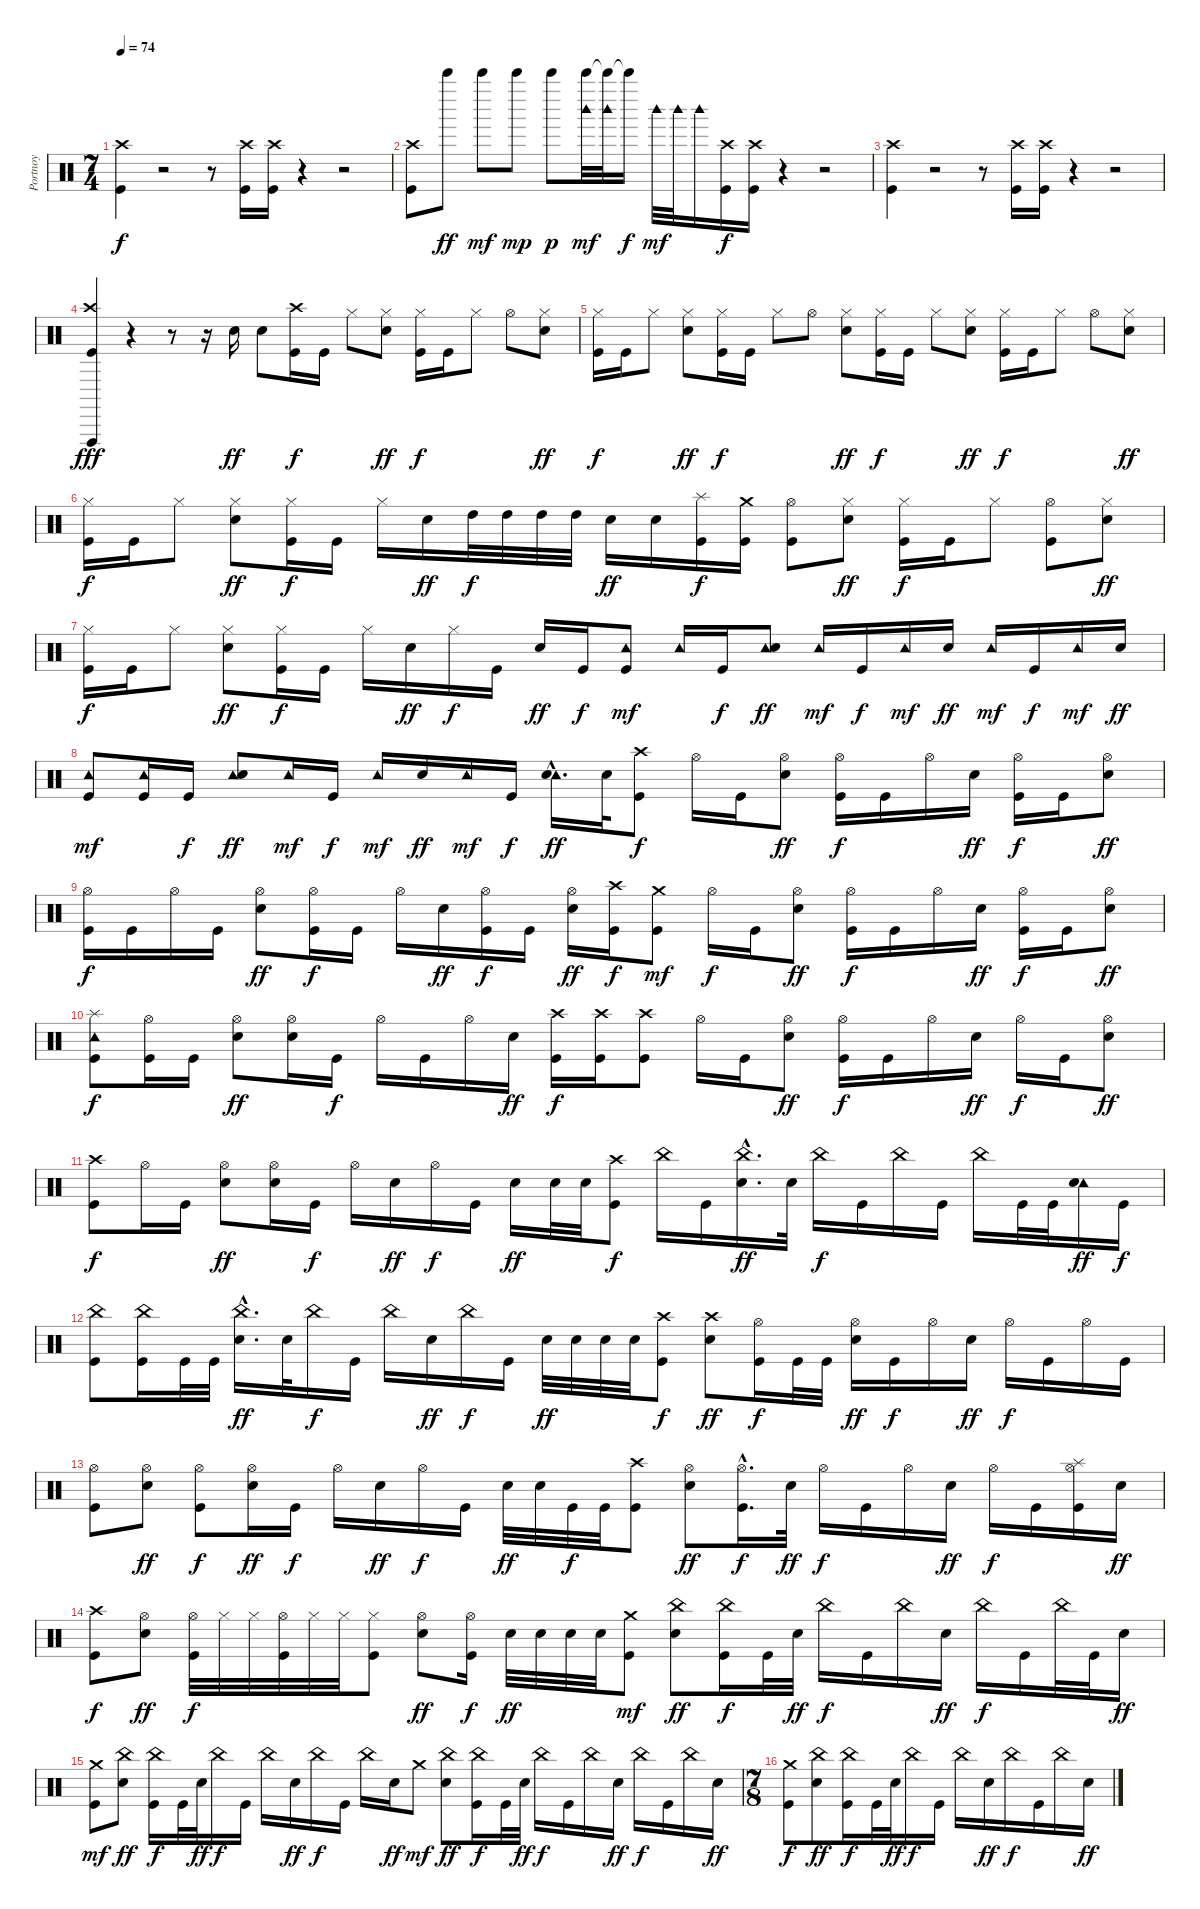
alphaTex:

\track ("Portnoy" "Portnoy") {instrument percussion}
\staff {score}
\articulation defaults
\ts (7 4)
\tempo 74
\clef neutral
\ks c
("Crash high (hit)" "Kick (hit)").4{dy f} r.2 r.8 ("Crash high (hit)" "Kick (hit)").16 ("Crash high (hit)" "Kick (hit)").16 r.4 r.2 |
("Crash high (hit)" "Kick (hit)").8 "Bell Tree (hit)".8{dy ff} "Bell Tree (hit)".8{dy mf} "Bell Tree (hit)".8{dy mp} "Bell Tree (hit)".8{dy p} ("Bell Tree (hit)" "Woodblock high (hit)").32{dy mf} ("Bell Tree (hit)"{t} "Woodblock high (hit)").32 "Bell Tree (hit)"{t}.16{dy f} "Woodblock high (hit)".32{dy mf} "Woodblock high (hit)".32 "Woodblock high (hit)".16 ("Crash high (hit)" "Kick (hit)").16{dy f} ("Crash high (hit)" "Kick (hit)").16 r.4 r.2 |
("Crash high (hit)" "Kick (hit)").4 r.2 r.8 ("Crash high (hit)" "Kick (hit)").16 ("Crash high (hit)" "Kick (hit)").16 r.4 r.2 |
("Crash high (hit)" "Vibraslap (hit)" "Kick (hit)").4{dy fff} r.4 r.8 r.16 "Electric Snare (hit)".16{dy ff} "Electric Snare (hit)".8 ("Crash high (hit)" "Kick (hit)").16{dy f} "Kick (hit)".16 "Hi-Hat (closed)".8 ("Hi-Hat (closed)" "Electric Snare (hit)").8{dy ff} ("Hi-Hat (closed)" "Kick (hit)").16{dy f} "Kick (hit)".16 "Hi-Hat (closed)".8 "Hi-Hat (open)".8 ("Hi-Hat (closed)" "Electric Snare (hit)").8{dy ff} |
("Hi-Hat (closed)" "Kick (hit)").16{dy f} "Kick (hit)".16 "Hi-Hat (closed)".8 ("Hi-Hat (closed)" "Electric Snare (hit)").8{dy ff} ("Hi-Hat (closed)" "Kick (hit)").16{dy f} "Kick (hit)".16 "Hi-Hat (closed)".8 "Hi-Hat (open)".8 ("Hi-Hat (closed)" "Electric Snare (hit)").8{dy ff} ("Hi-Hat (closed)" "Kick (hit)").16{dy f} "Kick (hit)".16 "Hi-Hat (closed)".8 ("Hi-Hat (closed)" "Electric Snare (hit)").8{dy ff} ("Hi-Hat (closed)" "Kick (hit)").16{dy f} "Kick (hit)".16 "Hi-Hat (closed)".8 "Hi-Hat (open)".8 ("Hi-Hat (closed)" "Electric Snare (hit)").8{dy ff} |
("Hi-Hat (closed)" "Kick (hit)").16{dy f} "Kick (hit)".16 "Hi-Hat (closed)".8 ("Hi-Hat (closed)" "Electric Snare (hit)").8{dy ff} ("Hi-Hat (closed)" "Kick (hit)").16{dy f} "Kick (hit)".16 "Hi-Hat (closed)".16 "Electric Snare (hit)".16{dy ff} "High Tom (hit)".32{dy f} "High Tom (hit)".32 "High Tom (hit)".32 "High Tom (hit)".32 "Electric Snare (hit)".16{dy ff} "Electric Snare (hit)".16 ("Splash (hit)" "Kick (hit)").16{dy f} ("Crash medium (hit)" "Kick (hit)").16 ("Hi-Hat (open)" "Kick (hit)").8 ("Hi-Hat (closed)" "Electric Snare (hit)").8{dy ff} ("Hi-Hat (closed)" "Kick (hit)").16{dy f} "Kick (hit)".16 "Hi-Hat (closed)".8 ("Hi-Hat (open)" "Kick (hit)").8 ("Hi-Hat (closed)" "Electric Snare (hit)").8{dy ff} |
("Hi-Hat (closed)" "Kick (hit)").16{dy f} "Kick (hit)".16 "Hi-Hat (closed)".8 ("Hi-Hat (closed)" "Electric Snare (hit)").8{dy ff} ("Hi-Hat (closed)" "Kick (hit)").16{dy f} "Kick (hit)".16 "Hi-Hat (closed)".16 "Electric Snare (hit)".16{dy ff} "Hi-Hat (closed)".16{dy f} "Kick (hit)".16 "Electric Snare (hit)".16{dy ff} "Kick (hit)".16{dy f} ("Tambourine (hit)" "Kick (hit)").8{dy mf} "Tambourine (hit)".16 "Kick (hit)".16{dy f} ("Tambourine (hit)" "Electric Snare (hit)").8{dy ff} "Tambourine (hit)".16{dy mf} "Kick (hit)".16{dy f} "Tambourine (hit)".16{dy mf} "Electric Snare (hit)".16{dy ff} "Tambourine (hit)".16{dy mf} "Kick (hit)".16{dy f} "Tambourine (hit)".16{dy mf} "Electric Snare (hit)".16{dy ff} |
("Tambourine (hit)" "Kick (hit)").8{dy mf} ("Tambourine (hit)" "Kick (hit)").16 "Kick (hit)".16{dy f} ("Tambourine (hit)" "Electric Snare (hit)").8{dy ff} "Tambourine (hit)".16{dy mf} "Kick (hit)".16{dy f} "Tambourine (hit)".16{dy mf} "Electric Snare (hit)".16{dy ff} "Tambourine (hit)".16{dy mf} "Kick (hit)".16{dy f} ("Tambourine (hit)"{hac} "Electric Snare (hit)"{hac}).16{d dy ff} "Electric Snare (hit)".32 ("Crash high (hit)" "Kick (hit)").8{dy f} "Hi-Hat (open)".16 "Kick (hit)".16 ("Hi-Hat (open)" "Electric Snare (hit)").8{dy ff} ("Hi-Hat (open)" "Kick (hit)").16{dy f} "Kick (hit)".16 "Hi-Hat (open)".16 "Electric Snare (hit)".16{dy ff} ("Hi-Hat (open)" "Kick (hit)").16{dy f} "Kick (hit)".16 ("Hi-Hat (open)" "Electric Snare (hit)").8{dy ff} |
("Hi-Hat (open)" "Kick (hit)").16{dy f} "Kick (hit)".16 "Hi-Hat (open)".16 "Kick (hit)".16 ("Hi-Hat (open)" "Electric Snare (hit)").8{dy ff} ("Hi-Hat (open)" "Kick (hit)").16{dy f} "Kick (hit)".16 "Hi-Hat (open)".16 "Electric Snare (hit)".16{dy ff} ("Hi-Hat (open)" "Kick (hit)").16{dy f} "Kick (hit)".16 ("Hi-Hat (open)" "Electric Snare (hit)").16{dy ff} ("Crash high (hit)" "Kick (hit)").16{dy f} ("Crash medium (hit)" "Kick (hit)").8{dy mf} "Hi-Hat (open)".16{dy f} "Kick (hit)".16 ("Hi-Hat (open)" "Electric Snare (hit)").8{dy ff} ("Hi-Hat (open)" "Kick (hit)").16{dy f} "Kick (hit)".16 "Hi-Hat (open)".16 "Electric Snare (hit)".16{dy ff} ("Hi-Hat (open)" "Kick (hit)").16{dy f} "Kick (hit)".16 ("Hi-Hat (open)" "Electric Snare (hit)").8{dy ff} |
("Splash (hit)" "Tambourine (hit)" "Kick (hit)").8{dy f} ("Hi-Hat (open)" "Kick (hit)").16 "Kick (hit)".16 ("Hi-Hat (open)" "Electric Snare (hit)").8{dy ff} ("Hi-Hat (open)" "Electric Snare (hit)").16 "Kick (hit)".16{dy f} "Hi-Hat (open)".16 "Kick (hit)".16 "Hi-Hat (open)".16 "Electric Snare (hit)".16{dy ff} ("Crash high (hit)" "Kick (hit)").16{dy f} ("Crash high (hit)" "Kick (hit)").16 ("Crash high (hit)" "Kick (hit)").8 "Hi-Hat (open)".16 "Kick (hit)".16 ("Hi-Hat (open)" "Electric Snare (hit)").8{dy ff} ("Hi-Hat (open)" "Kick (hit)").16{dy f} "Kick (hit)".16 "Hi-Hat (open)".16 "Electric Snare (hit)".16{dy ff} "Hi-Hat (open)".16{dy f} "Kick (hit)".16 ("Hi-Hat (open)" "Electric Snare (hit)").8{dy ff} |
("Crash high (hit)" "Kick (hit)").8{dy f} "Hi-Hat (open)".16 "Kick (hit)".16 ("Hi-Hat (open)" "Electric Snare (hit)").8{dy ff} ("Hi-Hat (open)" "Electric Snare (hit)").16 "Kick (hit)".16{dy f} "Hi-Hat (open)".16 "Electric Snare (hit)".16{dy ff} "Hi-Hat (open)".16{dy f} "Kick (hit)".16 "Electric Snare (hit)".16{dy ff} "Electric Snare (hit)".32 "Electric Snare (hit)".32 ("Crash high (hit)" "Kick (hit)").8{dy f} "China (hit)".16 "Kick (hit)".16 ("China (hit)"{hac} "Electric Snare (hit)"{hac}).16{d dy ff} "Electric Snare (hit)".32 "China (hit)".16{dy f} "Kick (hit)".16 "China (hit)".16 "Kick (hit)".16 "China (hit)".16 "Kick (hit)".32 "Kick (hit)".32 ("Tambourine (hit)" "Electric Snare (hit)").16{dy ff} "Kick (hit)".16{dy f} |
("China (hit)" "Kick (hit)").8 ("China (hit)" "Kick (hit)").16 "Kick (hit)".32 "Kick (hit)".32 ("China (hit)"{hac} "Electric Snare (hit)"{hac}).16{d dy ff} "Electric Snare (hit)".32 "China (hit)".16{dy f} "Kick (hit)".16 "China (hit)".16 "Electric Snare (hit)".16{dy ff} "China (hit)".16{dy f} "Kick (hit)".16 "Electric Snare (hit)".32{dy ff} "Electric Snare (hit)".32 "Electric Snare (hit)".32 "Electric Snare (hit)".32 ("Crash high (hit)" "Kick (hit)").8{dy f} ("Crash high (hit)" "Electric Snare (hit)").8{dy ff} ("Hi-Hat (open)" "Kick (hit)").16{dy f} "Kick (hit)".32 "Kick (hit)".32 ("Hi-Hat (open)" "Electric Snare (hit)").16{dy ff} "Kick (hit)".16{dy f} "Hi-Hat (open)".16 "Electric Snare (hit)".16{dy ff} "Hi-Hat (open)".16{dy f} "Kick (hit)".16 "Hi-Hat (open)".16 "Kick (hit)".16 |
("Hi-Hat (open)" "Kick (hit)").8 ("Hi-Hat (open)" "Electric Snare (hit)").8{dy ff} ("Hi-Hat (open)" "Kick (hit)").8{dy f} ("Hi-Hat (open)" "Electric Snare (hit)").16{dy ff} "Kick (hit)".16{dy f} "Hi-Hat (open)".16 "Electric Snare (hit)".16{dy ff} "Hi-Hat (open)".16{dy f} "Kick (hit)".16 "Electric Snare (hit)".32{dy ff} "Electric Snare (hit)".32 "Kick (hit)".32{dy f} "Kick (hit)".32 ("Crash high (hit)" "Kick (hit)").8 ("Hi-Hat (open)" "Electric Snare (hit)").8{dy ff} ("Hi-Hat (open)"{hac} "Kick (hit)"{hac}).16{d dy f} "Electric Snare (hit)".32{dy ff} "Hi-Hat (open)".16{dy f} "Kick (hit)".16 "Hi-Hat (open)".16 "Electric Snare (hit)".16{dy ff} "Hi-Hat (open)".16{dy f} "Kick (hit)".16 ("Hi-Hat (open)" "Splash (hit)" "Kick (hit)").16 "Electric Snare (hit)".16{dy ff} |
("Crash high (hit)" "Kick (hit)").8{dy f} ("Hi-Hat (open)" "Electric Snare (hit)").8{dy ff} ("Hi-Hat (open)" "Kick (hit)").32{dy f} "Hi-Hat (closed)".32 "Hi-Hat (closed)".32 ("Hi-Hat (open)" "Kick (hit)").32 "Hi-Hat (closed)".32 "Hi-Hat (closed)".32 ("Hi-Hat (closed)" "Kick (hit)").8 ("Hi-Hat (open)" "Electric Snare (hit)").8{dy ff} ("Hi-Hat (open)" "Kick (hit)").16{dy f} "Electric Snare (hit)".32{dy ff} "Electric Snare (hit)".32 "Electric Snare (hit)".32 "Electric Snare (hit)".32 ("Crash medium (hit)" "Kick (hit)").8{dy mf} ("China (hit)" "Electric Snare (hit)").8{dy ff} ("China (hit)" "Kick (hit)").16{dy f} "Kick (hit)".32 "Electric Snare (hit)".32{dy ff} "China (hit)".16{dy f} "Kick (hit)".16 "China (hit)".16 "Electric Snare (hit)".16{dy ff} "China (hit)".16{dy f} "Kick (hit)".16 "China (hit)".32 "Kick (hit)".32 "Electric Snare (hit)".16{dy ff} |
("Crash medium (hit)" "Kick (hit)").8{dy mf} ("China (hit)" "Electric Snare (hit)").8{dy ff} ("China (hit)" "Kick (hit)").16{dy f} "Kick (hit)".32 "Electric Snare (hit)".32{dy ff} "China (hit)".16{dy f} "Kick (hit)".16 "China (hit)".16 "Electric Snare (hit)".16{dy ff} "China (hit)".16{dy f} "Kick (hit)".16 "China (hit)".16 "Electric Snare (hit)".16{dy ff} "Crash medium (hit)".8{dy mf} ("China (hit)" "Electric Snare (hit)").8{dy ff} ("China (hit)" "Kick (hit)").16{dy f} "Kick (hit)".32 "Electric Snare (hit)".32{dy ff} "China (hit)".16{dy f} "Kick (hit)".16 "China (hit)".16 "Electric Snare (hit)".16{dy ff} "China (hit)".16{dy f} "Kick (hit)".16 "China (hit)".16 "Electric Snare (hit)".16{dy ff} |
\ts (7 8)
("Crash medium (hit)" "Kick (hit)").8{dy f} ("China (hit)" "Electric Snare (hit)").8{dy ff} ("China (hit)" "Kick (hit)").16{dy f} "Kick (hit)".32 "Electric Snare (hit)".32{dy ff} "China (hit)".16{dy f} "Kick (hit)".16 "China (hit)".16 "Electric Snare (hit)".16{dy ff} "China (hit)".16{dy f} "Kick (hit)".16 "China (hit)".16 "Electric Snare (hit)".16{dy ff}
